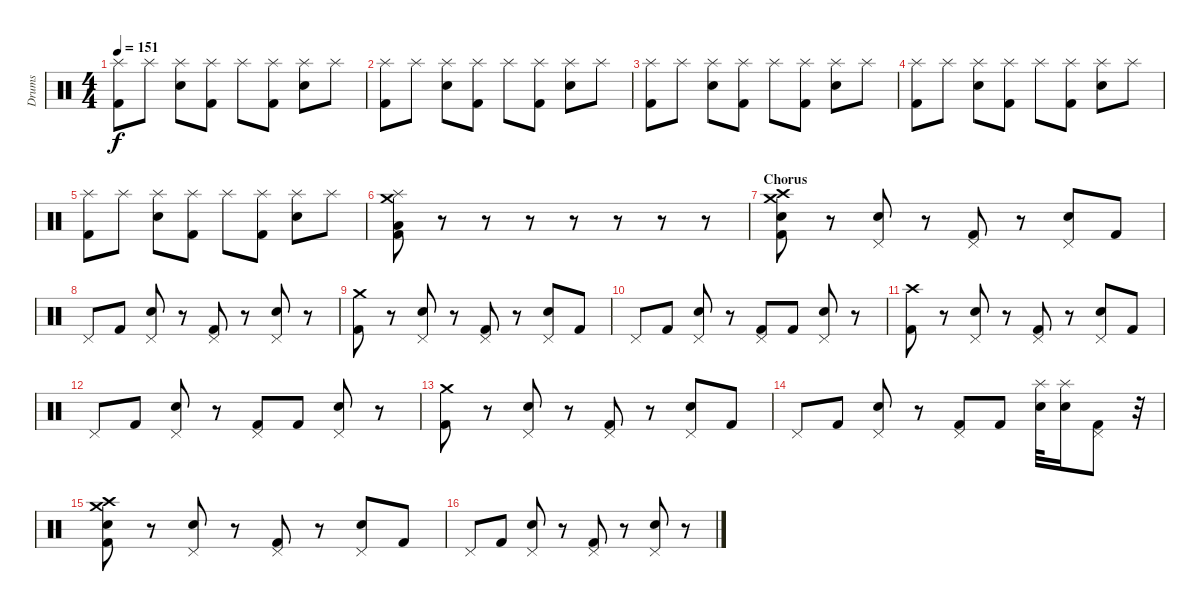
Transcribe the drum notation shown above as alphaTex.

\track ("Drums" "Drums") {instrument percussion}
\staff {score}
\articulation defaults
\ts (4 4)
\tempo 151
\clef neutral
\ks c
("Kick (hit) 2" "Splash (hit)").8{dy f} "Splash (hit)".8 ("Splash (hit)" "Electric Snare (hit)").8 ("Kick (hit) 2" "Splash (hit)").8 "Splash (hit)".8 ("Kick (hit) 2" "Splash (hit)").8 ("Splash (hit)" "Electric Snare (hit)").8 "Splash (hit)".8 |
("Kick (hit) 2" "Splash (hit)").8 "Splash (hit)".8 ("Splash (hit)" "Electric Snare (hit)").8 ("Kick (hit) 2" "Splash (hit)").8 "Splash (hit)".8 ("Kick (hit) 2" "Splash (hit)").8 ("Splash (hit)" "Electric Snare (hit)").8 "Splash (hit)".8 |
("Kick (hit) 2" "Splash (hit)").8 "Splash (hit)".8 ("Splash (hit)" "Electric Snare (hit)").8 ("Kick (hit) 2" "Splash (hit)").8 "Splash (hit)".8 ("Kick (hit) 2" "Splash (hit)").8 ("Splash (hit)" "Electric Snare (hit)").8 "Splash (hit)".8 |
("Kick (hit) 2" "Splash (hit)").8 "Splash (hit)".8 ("Splash (hit)" "Electric Snare (hit)").8 ("Kick (hit) 2" "Splash (hit)").8 "Splash (hit)".8 ("Kick (hit) 2" "Splash (hit)").8 ("Splash (hit)" "Electric Snare (hit)").8 "Splash (hit)".8 |
("Kick (hit) 2" "Splash (hit)").8 "Splash (hit)".8 ("Splash (hit)" "Electric Snare (hit)").8 ("Kick (hit) 2" "Splash (hit)").8 "Splash (hit)".8 ("Kick (hit) 2" "Splash (hit)").8 ("Splash (hit)" "Electric Snare (hit)").8 "Splash (hit)".8 |
("Kick (hit) 2" "Low Floor Tom (hit)" "Splash (hit)" "Crash medium (hit)").8 r.8 r.8 r.8 r.8 r.8 r.8 r.8 |
\section ("" "Chorus")
("Kick (hit) 2" "Crash medium (hit)" "Electric Snare (hit)" "Crash high (hit)").8 r.8 ("Pedal Hi-Hat (hit)" "Electric Snare (hit)").8 r.8 ("Pedal Hi-Hat (hit)" "Kick (hit) 2").8 r.8 ("Pedal Hi-Hat (hit)" "Electric Snare (hit)").8 "Kick (hit) 2".8 |
"Pedal Hi-Hat (hit)".8 "Kick (hit) 2".8 ("Pedal Hi-Hat (hit)" "Electric Snare (hit)").8 r.8 ("Pedal Hi-Hat (hit)" "Kick (hit) 2").8 r.8 ("Pedal Hi-Hat (hit)" "Electric Snare (hit)").8 r.8 |
("Kick (hit) 2" "Crash medium (hit)").8 r.8 ("Pedal Hi-Hat (hit)" "Electric Snare (hit)").8 r.8 ("Pedal Hi-Hat (hit)" "Kick (hit) 2").8 r.8 ("Pedal Hi-Hat (hit)" "Electric Snare (hit)").8 "Kick (hit) 2".8 |
"Pedal Hi-Hat (hit)".8 "Kick (hit) 2".8 ("Pedal Hi-Hat (hit)" "Electric Snare (hit)").8 r.8 ("Pedal Hi-Hat (hit)" "Kick (hit) 2").8 "Kick (hit) 2".8 ("Pedal Hi-Hat (hit)" "Electric Snare (hit)").8 r.8 |
("Kick (hit) 2" "Crash high (hit)").8 r.8 ("Pedal Hi-Hat (hit)" "Electric Snare (hit)").8 r.8 ("Pedal Hi-Hat (hit)" "Kick (hit) 2").8 r.8 ("Pedal Hi-Hat (hit)" "Electric Snare (hit)").8 "Kick (hit) 2".8 |
"Pedal Hi-Hat (hit)".8 "Kick (hit) 2".8 ("Pedal Hi-Hat (hit)" "Electric Snare (hit)").8 r.8 ("Pedal Hi-Hat (hit)" "Kick (hit) 2").8 "Kick (hit) 2".8 ("Pedal Hi-Hat (hit)" "Electric Snare (hit)").8 r.8 |
("Kick (hit) 2" "Crash medium (hit)").8 r.8 ("Pedal Hi-Hat (hit)" "Electric Snare (hit)").8 r.8 ("Pedal Hi-Hat (hit)" "Kick (hit) 2").8 r.8 ("Pedal Hi-Hat (hit)" "Electric Snare (hit)").8 "Kick (hit) 2".8 |
"Pedal Hi-Hat (hit)".8 "Kick (hit) 2".8 ("Pedal Hi-Hat (hit)" "Electric Snare (hit)").8 r.8 ("Pedal Hi-Hat (hit)" "Kick (hit) 2").8 "Kick (hit) 2".8 ("Splash (hit)" "Electric Snare (hit)").32 ("Splash (hit)" "Electric Snare (hit)").16 ("Pedal Hi-Hat (hit)" "Kick (hit) 2").8 r.32 |
("Kick (hit) 2" "Crash medium (hit)" "Electric Snare (hit)" "Crash high (hit)").8 r.8 ("Pedal Hi-Hat (hit)" "Electric Snare (hit)").8 r.8 ("Pedal Hi-Hat (hit)" "Kick (hit) 2").8 r.8 ("Pedal Hi-Hat (hit)" "Electric Snare (hit)").8 "Kick (hit) 2".8 |
"Pedal Hi-Hat (hit)".8 "Kick (hit) 2".8 ("Pedal Hi-Hat (hit)" "Electric Snare (hit)").8 r.8 ("Pedal Hi-Hat (hit)" "Kick (hit) 2").8 r.8 ("Pedal Hi-Hat (hit)" "Electric Snare (hit)").8 r.8
